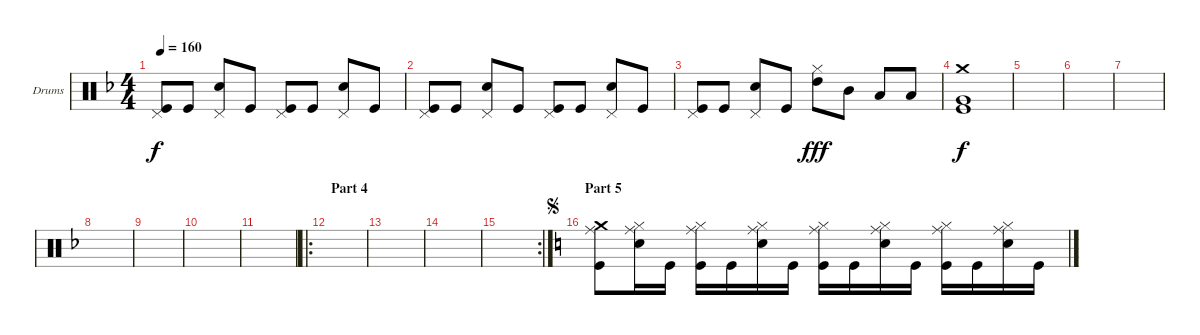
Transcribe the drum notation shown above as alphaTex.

\defaultSystemsLayout 4
\bracketExtendMode groupsimilarinstruments
\firstSystemTrackNameOrientation horizontal
\otherSystemsTrackNameOrientation horizontal
\track ("Drumkit" "Drums") {instrument percussion}
\staff {score}
\articulation defaults
\ts (4 4)
\tempo 160
\clef neutral
\ks dminor
("Kick (hit)" "Pedal Hi-Hat (hit)").8{dy f} "Kick (hit)".8 ("Snare (hit) 2" "Pedal Hi-Hat (hit)").8 "Kick (hit)".8 ("Kick (hit)" "Pedal Hi-Hat (hit)").8 "Kick (hit)".8 ("Snare (hit) 2" "Pedal Hi-Hat (hit)").8 "Kick (hit)".8 |
("Kick (hit)" "Pedal Hi-Hat (hit)").8 "Kick (hit)".8 ("Snare (hit) 2" "Pedal Hi-Hat (hit)").8 "Kick (hit)".8 ("Kick (hit)" "Pedal Hi-Hat (hit)").8 "Kick (hit)".8 ("Snare (hit) 2" "Pedal Hi-Hat (hit)").8 "Kick (hit)".8 |
("Kick (hit)" "Pedal Hi-Hat (hit)").8 "Kick (hit)".8 ("Snare (hit) 2" "Pedal Hi-Hat (hit)").8 "Kick (hit)".8 ("Hi-Hat (closed)" "High Tom (hit)").8{dy fff} "Mid Tom (hit)".8 "Low Tom (hit)".8 "Low Tom (hit)".8 |
("Kick (hit)" "Very Low Tom (hit)" "Crash medium (hit)").1{dy f} |
|
|
|
|
|
|
|
\ro
\section ("" "Part 4")
|
|
|
\rc 2
|
\section ("" "Part 5")
\jump segno
\ks aminor
("Kick (hit)" "Ride (middle)" "Crash medium (hit)").8 ("Snare (hit) 2" "Hi-Hat (closed)" "Ride (middle)").16 "Kick (hit)".16 ("Kick (hit)" "Hi-Hat (closed)" "Ride (middle)").16 "Kick (hit)".16 ("Snare (hit) 2" "Hi-Hat (closed)" "Ride (middle)").16 "Kick (hit)".16 ("Kick (hit)" "Hi-Hat (closed)" "Ride (middle)").16 "Kick (hit)".16 ("Snare (hit) 2" "Hi-Hat (closed)" "Ride (middle)").16 "Kick (hit)".16 ("Kick (hit)" "Hi-Hat (closed)" "Ride (middle)").16 "Kick (hit)".16 ("Snare (hit) 2" "Hi-Hat (closed)" "Ride (middle)").16 "Kick (hit)".16
